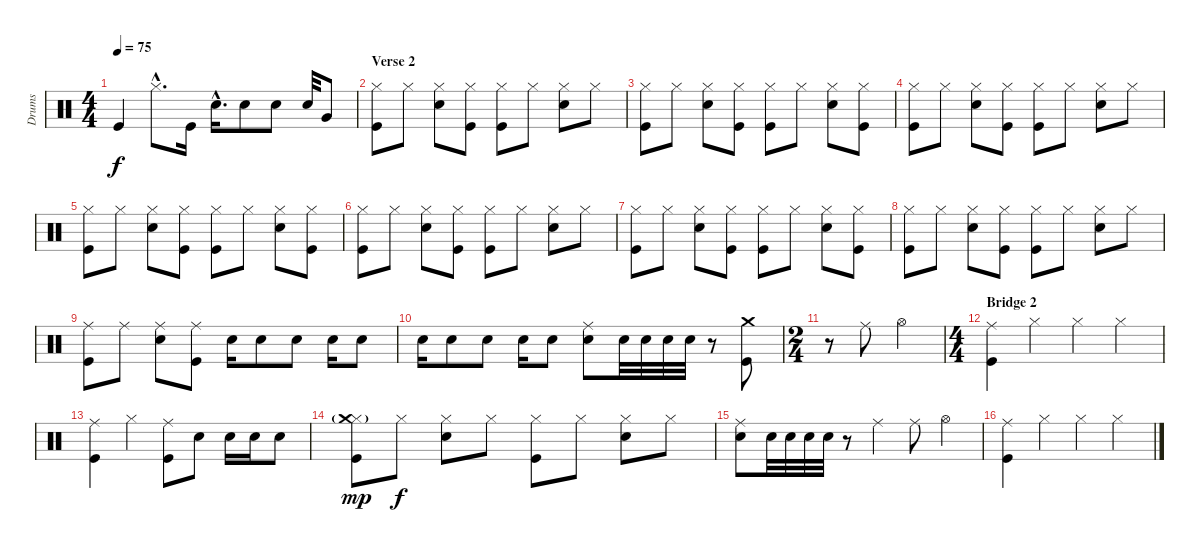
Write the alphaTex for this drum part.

\track ("Drums" "Drums") {instrument percussion}
\staff {score}
\articulation defaults
\ts (4 4)
\tempo 75
\clef neutral
\ks c "Kick (hit)".4{dy f} "Hi-Hat (closed)"{hac}.8{d} "Kick (hit)".16 "Snare (hit) 2"{hac}.16{d} "Snare (hit) 2".8 "Snare (hit) 2".8 "Snare (hit) 2".32 "Very Low Tom (hit)".8
|
\section ("" "Verse 2")
("Hi-Hat (closed)" "Kick (hit)").8 "Hi-Hat (closed)".8 ("Hi-Hat (closed)" "Snare (hit) 2").8 ("Hi-Hat (closed)" "Kick (hit)").8 ("Hi-Hat (closed)" "Kick (hit)").8 "Hi-Hat (closed)".8 ("Hi-Hat (closed)" "Snare (hit) 2").8 "Hi-Hat (closed)".8 |
("Hi-Hat (closed)" "Kick (hit)").8 "Hi-Hat (closed)".8 ("Hi-Hat (closed)" "Snare (hit) 2").8 ("Hi-Hat (closed)" "Kick (hit)").8 ("Hi-Hat (closed)" "Kick (hit)").8 "Hi-Hat (closed)".8 ("Hi-Hat (closed)" "Snare (hit) 2").8 ("Hi-Hat (closed)" "Kick (hit)").8 |
("Hi-Hat (closed)" "Kick (hit)").8 "Hi-Hat (closed)".8 ("Hi-Hat (closed)" "Snare (hit) 2").8 ("Hi-Hat (closed)" "Kick (hit)").8 ("Hi-Hat (closed)" "Kick (hit)").8 "Hi-Hat (closed)".8 ("Hi-Hat (closed)" "Snare (hit) 2").8 "Hi-Hat (closed)".8 |
("Hi-Hat (closed)" "Kick (hit)").8 "Hi-Hat (closed)".8 ("Hi-Hat (closed)" "Snare (hit) 2").8 ("Hi-Hat (closed)" "Kick (hit)").8 ("Hi-Hat (closed)" "Kick (hit)").8 "Hi-Hat (closed)".8 ("Hi-Hat (closed)" "Snare (hit) 2").8 ("Hi-Hat (closed)" "Kick (hit)").8 |
\section ("" "")
("Hi-Hat (closed)" "Kick (hit)").8 "Hi-Hat (closed)".8 ("Hi-Hat (closed)" "Snare (hit) 2").8 ("Hi-Hat (closed)" "Kick (hit)").8 ("Hi-Hat (closed)" "Kick (hit)").8 "Hi-Hat (closed)".8 ("Hi-Hat (closed)" "Snare (hit) 2").8 "Hi-Hat (closed)".8 |
("Hi-Hat (closed)" "Kick (hit)").8 "Hi-Hat (closed)".8 ("Hi-Hat (closed)" "Snare (hit) 2").8 ("Hi-Hat (closed)" "Kick (hit)").8 ("Hi-Hat (closed)" "Kick (hit)").8 "Hi-Hat (closed)".8 ("Hi-Hat (closed)" "Snare (hit) 2").8 ("Hi-Hat (closed)" "Kick (hit)").8 |
("Hi-Hat (closed)" "Kick (hit)").8 "Hi-Hat (closed)".8 ("Hi-Hat (closed)" "Snare (hit) 2").8 ("Hi-Hat (closed)" "Kick (hit)").8 ("Hi-Hat (closed)" "Kick (hit)").8 "Hi-Hat (closed)".8 ("Hi-Hat (closed)" "Snare (hit) 2").8 "Hi-Hat (closed)".8 |
("Ride (middle)" "Kick (hit)").8 "Ride (middle)".8 ("Ride (middle)" "Snare (hit) 2").8 ("Ride (middle)" "Kick (hit)").8 "Snare (hit) 2".16 "Snare (hit) 2".8 "Snare (hit) 2".8 "Snare (hit) 2".16 "Snare (hit) 2".8 |
"Snare (hit) 2".16 "Snare (hit) 2".8 "Snare (hit) 2".8 "Snare (hit) 2".16 "Snare (hit) 2".8 ("Ride (middle)" "Snare (hit) 2").8 "Snare (hit) 2".32 "Snare (hit) 2".32 "Snare (hit) 2".32 "Snare (hit) 2".32 r.8 ("Crash medium (hit)" "Kick (hit)").8 |
\ts (2 4)
r.8 "Ride (middle)".8 "Hi-Hat (open)".4 |
\ts (4 4)
\section ("" "Bridge 2")
("Ride (middle)" "Kick (hit)").4 "Hi-Hat (closed)".4 "Hi-Hat (closed)".4 "Hi-Hat (closed)".4 |
("Ride (middle)" "Kick (hit)").4 "Hi-Hat (closed)".4 ("Ride (middle)" "Kick (hit)").8 "Snare (hit) 2".8 "Snare (hit) 2".16 "Snare (hit) 2".16 "Snare (hit) 2".8 |
("Hi-Hat (closed)" "Crash medium (hit)"{g} "Kick (hit)").8{dy mp} "Hi-Hat (closed)".8{dy f} ("Hi-Hat (closed)" "Snare (hit) 2").8 "Hi-Hat (closed)".8 ("Hi-Hat (closed)" "Kick (hit)").8 "Hi-Hat (closed)".8 ("Hi-Hat (closed)" "Snare (hit) 2").8 "Hi-Hat (closed)".8 |
("Ride (middle)" "Snare (hit) 2").8 "Snare (hit) 2".32 "Snare (hit) 2".32 "Snare (hit) 2".32 "Snare (hit) 2".32 r.8 "Ride (middle)".4 "Ride (middle)".8 "Hi-Hat (open)".4 |
("Ride (middle)" "Kick (hit)").4 "Hi-Hat (closed)".4 "Hi-Hat (closed)".4 "Hi-Hat (closed)".4
